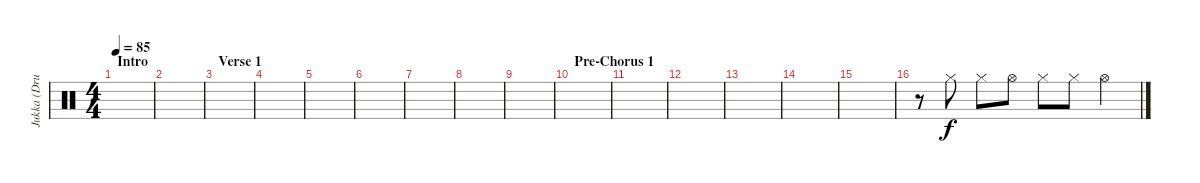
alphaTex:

\track ("Jukka (Drums)" "Jukka (Dru") {instrument percussion}
\staff {score}
\articulation defaults
\ts (4 4)
\section ("" "Intro")
\tempo 85
\clef neutral
\ks c
|
|
\section ("" "Verse 1")
|
|
|
|
|
|
|
\section ("" "Pre-Chorus 1")
|
|
|
|
|
|
r.8 "Hi-Hat (closed)".8 "Hi-Hat (closed)".8 "Hi-Hat (open)".8 "Hi-Hat (closed)".8 "Hi-Hat (closed)".8 "Hi-Hat (open)".4
